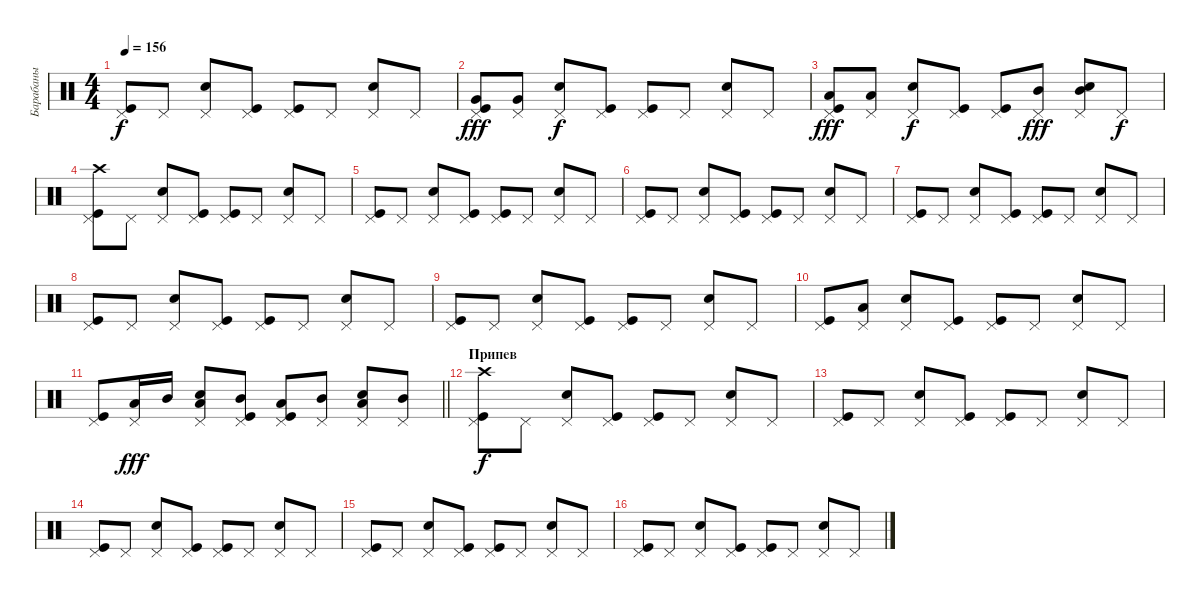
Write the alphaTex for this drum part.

\track ("Барабаны" "Барабаны") {instrument percussion}
\staff {score}
\articulation defaults
\ts (4 4)
\tempo 156
\clef neutral
\ks c
("Kick (hit)" "Pedal Hi-Hat (hit)").8{dy f} "Pedal Hi-Hat (hit)".8 ("Snare (hit) 2" "Pedal Hi-Hat (hit)").8 ("Kick (hit)" "Pedal Hi-Hat (hit)").8 ("Kick (hit)" "Pedal Hi-Hat (hit)").8 "Pedal Hi-Hat (hit)".8 ("Snare (hit) 2" "Pedal Hi-Hat (hit)").8 "Pedal Hi-Hat (hit)".8 |
("Kick (hit)" "Pedal Hi-Hat (hit)" "Very Low Tom (hit)").8{dy fff} ("Pedal Hi-Hat (hit)" "Very Low Tom (hit)").8 ("Snare (hit) 2" "Pedal Hi-Hat (hit)").8{dy f} ("Kick (hit)" "Pedal Hi-Hat (hit)").8 ("Kick (hit)" "Pedal Hi-Hat (hit)").8 "Pedal Hi-Hat (hit)".8 ("Snare (hit) 2" "Pedal Hi-Hat (hit)").8 "Pedal Hi-Hat (hit)".8 |
("Kick (hit)" "Pedal Hi-Hat (hit)" "Low Tom (hit)").8{dy fff} ("Pedal Hi-Hat (hit)" "Low Tom (hit)").8 ("Snare (hit) 2" "Pedal Hi-Hat (hit)").8{dy f} ("Kick (hit)" "Pedal Hi-Hat (hit)").8 ("Kick (hit)" "Pedal Hi-Hat (hit)").8 ("Pedal Hi-Hat (hit)" "Mid Tom (hit)").8{dy fff} ("Snare (hit) 2" "Pedal Hi-Hat (hit)" "Mid Tom (hit)").8 "Pedal Hi-Hat (hit)".8{dy f} |
("Kick (hit)" "Pedal Hi-Hat (hit)" "Crash high (hit)").8 "Pedal Hi-Hat (hit)".8 ("Snare (hit) 2" "Pedal Hi-Hat (hit)").8 ("Kick (hit)" "Pedal Hi-Hat (hit)").8 ("Kick (hit)" "Pedal Hi-Hat (hit)").8 "Pedal Hi-Hat (hit)".8 ("Snare (hit) 2" "Pedal Hi-Hat (hit)").8 "Pedal Hi-Hat (hit)".8 |
("Kick (hit)" "Pedal Hi-Hat (hit)").8 "Pedal Hi-Hat (hit)".8 ("Snare (hit) 2" "Pedal Hi-Hat (hit)").8 ("Kick (hit)" "Pedal Hi-Hat (hit)").8 ("Kick (hit)" "Pedal Hi-Hat (hit)").8 "Pedal Hi-Hat (hit)".8 ("Snare (hit) 2" "Pedal Hi-Hat (hit)").8 "Pedal Hi-Hat (hit)".8 |
("Kick (hit)" "Pedal Hi-Hat (hit)").8 "Pedal Hi-Hat (hit)".8 ("Snare (hit) 2" "Pedal Hi-Hat (hit)").8 ("Kick (hit)" "Pedal Hi-Hat (hit)").8 ("Kick (hit)" "Pedal Hi-Hat (hit)").8 "Pedal Hi-Hat (hit)".8 ("Snare (hit) 2" "Pedal Hi-Hat (hit)").8 "Pedal Hi-Hat (hit)".8 |
("Kick (hit)" "Pedal Hi-Hat (hit)").8 "Pedal Hi-Hat (hit)".8 ("Snare (hit) 2" "Pedal Hi-Hat (hit)").8 ("Kick (hit)" "Pedal Hi-Hat (hit)").8 ("Kick (hit)" "Pedal Hi-Hat (hit)").8 "Pedal Hi-Hat (hit)".8 ("Snare (hit) 2" "Pedal Hi-Hat (hit)").8 "Pedal Hi-Hat (hit)".8 |
("Kick (hit)" "Pedal Hi-Hat (hit)").8 "Pedal Hi-Hat (hit)".8 ("Snare (hit) 2" "Pedal Hi-Hat (hit)").8 ("Kick (hit)" "Pedal Hi-Hat (hit)").8 ("Kick (hit)" "Pedal Hi-Hat (hit)").8 "Pedal Hi-Hat (hit)".8 ("Snare (hit) 2" "Pedal Hi-Hat (hit)").8 "Pedal Hi-Hat (hit)".8 |
("Kick (hit)" "Pedal Hi-Hat (hit)").8 "Pedal Hi-Hat (hit)".8 ("Snare (hit) 2" "Pedal Hi-Hat (hit)").8 ("Kick (hit)" "Pedal Hi-Hat (hit)").8 ("Kick (hit)" "Pedal Hi-Hat (hit)").8 "Pedal Hi-Hat (hit)".8 ("Snare (hit) 2" "Pedal Hi-Hat (hit)").8 "Pedal Hi-Hat (hit)".8 |
("Kick (hit)" "Pedal Hi-Hat (hit)").8 ("Pedal Hi-Hat (hit)" "Low Tom (hit)").8 ("Snare (hit) 2" "Pedal Hi-Hat (hit)").8 ("Kick (hit)" "Pedal Hi-Hat (hit)").8 ("Kick (hit)" "Pedal Hi-Hat (hit)").8 "Pedal Hi-Hat (hit)".8 ("Snare (hit) 2" "Pedal Hi-Hat (hit)").8 "Pedal Hi-Hat (hit)".8 |
\barLineRight lightlight
("Kick (hit)" "Pedal Hi-Hat (hit)").8 ("Pedal Hi-Hat (hit)" "Low Tom (hit)").16{dy fff} "Mid Tom (hit)".16 ("Snare (hit) 2" "Pedal Hi-Hat (hit)" "Low Tom (hit)").8 ("Kick (hit)" "Pedal Hi-Hat (hit)" "Mid Tom (hit)").8 ("Kick (hit)" "Pedal Hi-Hat (hit)" "Low Tom (hit)").8 ("Pedal Hi-Hat (hit)" "Mid Tom (hit)").8 ("Snare (hit) 2" "Pedal Hi-Hat (hit)" "Low Tom (hit)").8 ("Pedal Hi-Hat (hit)" "Mid Tom (hit)").8 |
\section ("" "Припев")
("Kick (hit)" "Pedal Hi-Hat (hit)" "Crash high (hit)").8{dy f} "Pedal Hi-Hat (hit)".8 ("Snare (hit) 2" "Pedal Hi-Hat (hit)").8 ("Kick (hit)" "Pedal Hi-Hat (hit)").8 ("Kick (hit)" "Pedal Hi-Hat (hit)").8 "Pedal Hi-Hat (hit)".8 ("Snare (hit) 2" "Pedal Hi-Hat (hit)").8 "Pedal Hi-Hat (hit)".8 |
("Kick (hit)" "Pedal Hi-Hat (hit)").8 "Pedal Hi-Hat (hit)".8 ("Snare (hit) 2" "Pedal Hi-Hat (hit)").8 ("Kick (hit)" "Pedal Hi-Hat (hit)").8 ("Kick (hit)" "Pedal Hi-Hat (hit)").8 "Pedal Hi-Hat (hit)".8 ("Snare (hit) 2" "Pedal Hi-Hat (hit)").8 "Pedal Hi-Hat (hit)".8 |
("Kick (hit)" "Pedal Hi-Hat (hit)").8 "Pedal Hi-Hat (hit)".8 ("Snare (hit) 2" "Pedal Hi-Hat (hit)").8 ("Kick (hit)" "Pedal Hi-Hat (hit)").8 ("Kick (hit)" "Pedal Hi-Hat (hit)").8 "Pedal Hi-Hat (hit)".8 ("Snare (hit) 2" "Pedal Hi-Hat (hit)").8 "Pedal Hi-Hat (hit)".8 |
("Kick (hit)" "Pedal Hi-Hat (hit)").8 "Pedal Hi-Hat (hit)".8 ("Snare (hit) 2" "Pedal Hi-Hat (hit)").8 ("Kick (hit)" "Pedal Hi-Hat (hit)").8 ("Kick (hit)" "Pedal Hi-Hat (hit)").8 "Pedal Hi-Hat (hit)".8 ("Snare (hit) 2" "Pedal Hi-Hat (hit)").8 "Pedal Hi-Hat (hit)".8 |
("Kick (hit)" "Pedal Hi-Hat (hit)").8 "Pedal Hi-Hat (hit)".8 ("Snare (hit) 2" "Pedal Hi-Hat (hit)").8 ("Kick (hit)" "Pedal Hi-Hat (hit)").8 ("Kick (hit)" "Pedal Hi-Hat (hit)").8 "Pedal Hi-Hat (hit)".8 ("Snare (hit) 2" "Pedal Hi-Hat (hit)").8 "Pedal Hi-Hat (hit)".8
